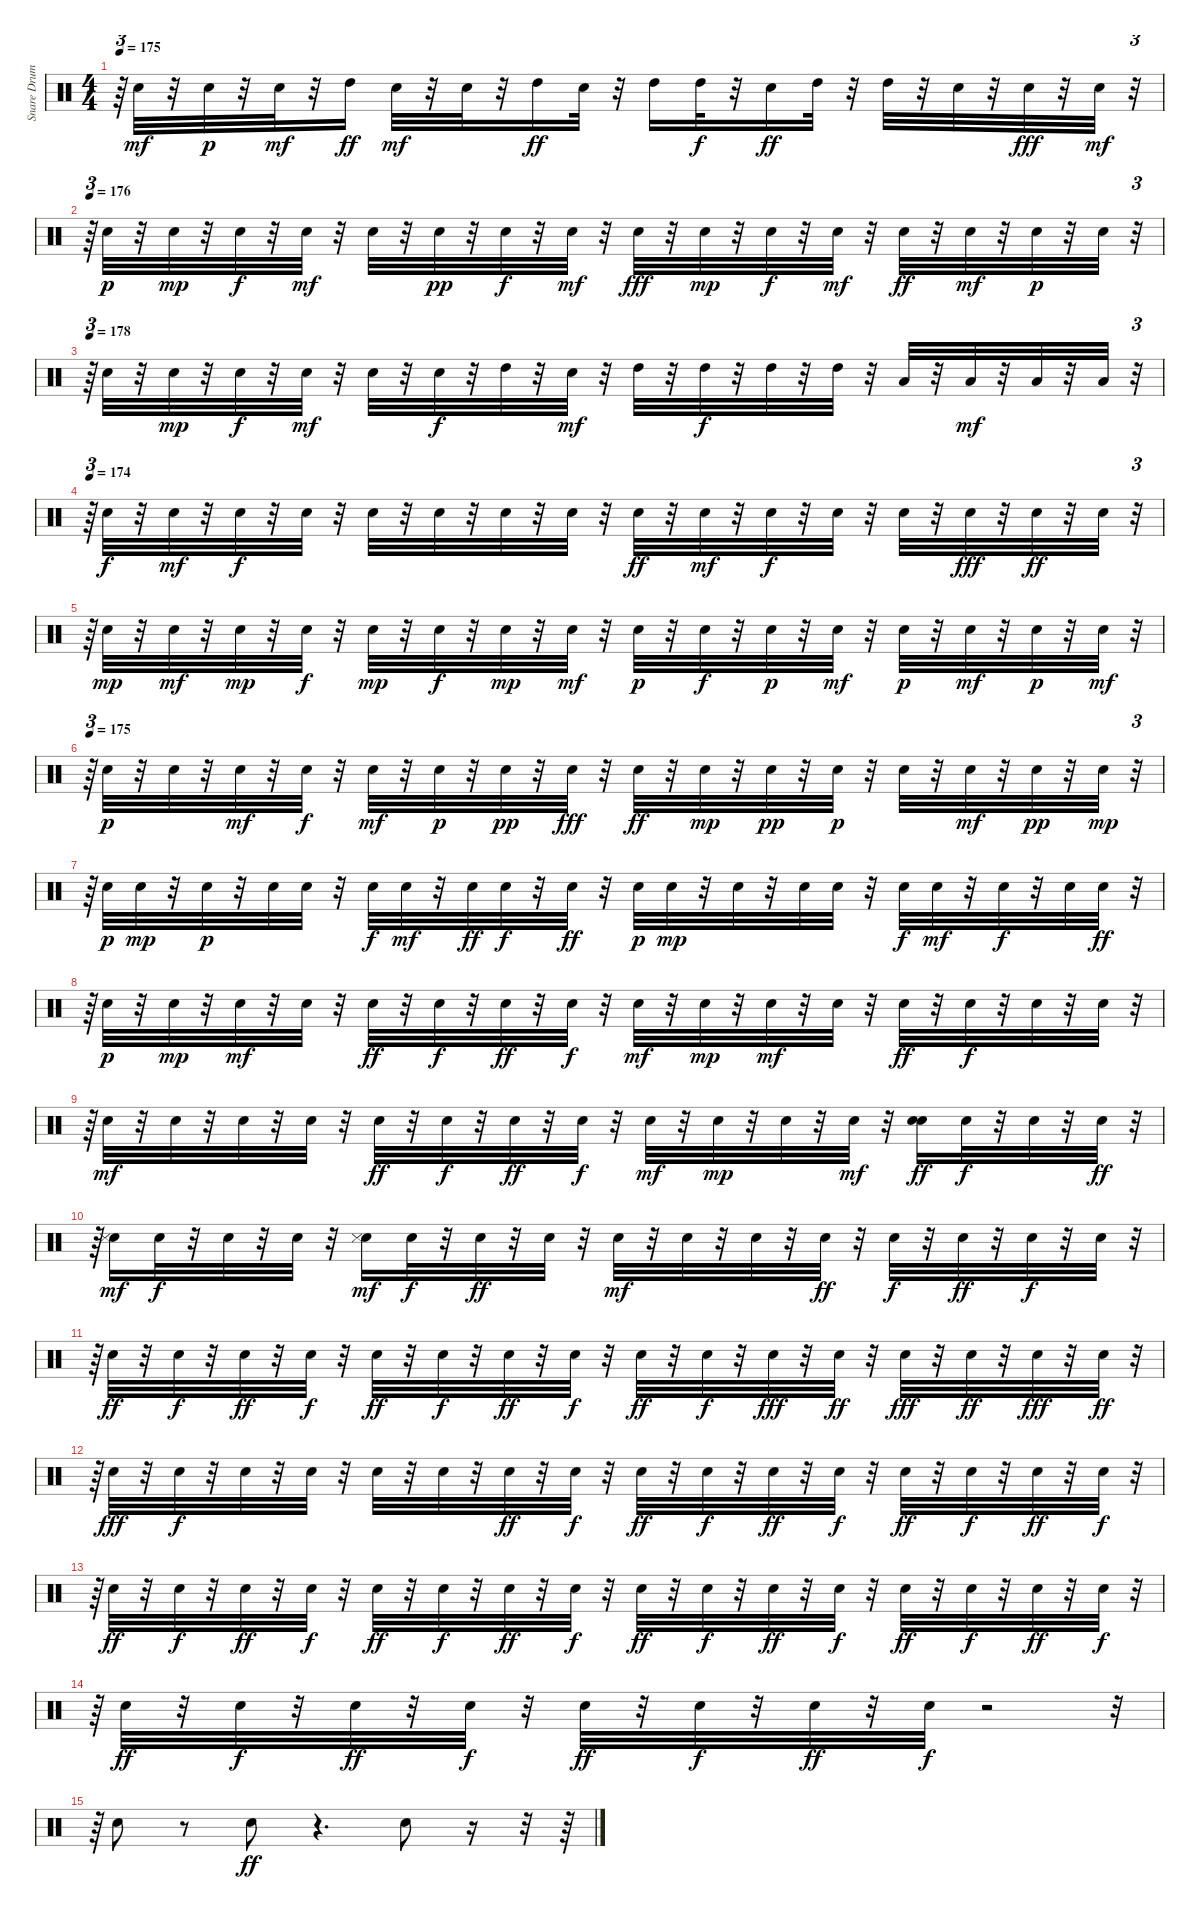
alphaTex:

\track ("Snare Drums" "Snare Drum") {instrument percussion}
\staff {score}
\articulation defaults
\ts (4 4)
\tempo 175
\clef neutral
\ks c
r.64{tu (3 2) dy mf} "Electric Snare (hit)".32 r.32 "Electric Snare (hit)".32{dy p} r.32 "Electric Snare (hit)".32{dy mf} r.32 "High Tom (hit)".16{dy ff} "Electric Snare (hit)".32{dy mf} r.32 "Electric Snare (hit)".32 r.32 "High Tom (hit)".16{dy ff} "Electric Snare (hit)".32 r.32 "High Tom (hit)".16 "High Tom (hit)".32{dy f} r.32 "Electric Snare (hit)".16{dy ff} "High Tom (hit)".32 r.32 "High Tom (hit)".32 r.32 "Electric Snare (hit)".32 r.32 "Electric Snare (hit)".32{dy fff} r.32 "Electric Snare (hit)".32{dy mf} r.32{tu (3 2)} |
\tempo 176
r.64{tu (3 2)} "Electric Snare (hit)".32{dy p} r.32 "Electric Snare (hit)".32{dy mp} r.32 "Electric Snare (hit)".32{dy f} r.32 "Electric Snare (hit)".32{dy mf} r.32 "Electric Snare (hit)".32 r.32 "Electric Snare (hit)".32{dy pp} r.32 "Electric Snare (hit)".32{dy f} r.32 "Electric Snare (hit)".32{dy mf} r.32 "Electric Snare (hit)".32{dy fff} r.32 "Electric Snare (hit)".32{dy mp} r.32 "Electric Snare (hit)".32{dy f} r.32 "Electric Snare (hit)".32{dy mf} r.32 "Electric Snare (hit)".32{dy ff} r.32 "Electric Snare (hit)".32{dy mf} r.32 "Electric Snare (hit)".32{dy p} r.32 "Electric Snare (hit)".32 r.32{tu (3 2)} |
\tempo 178
r.64{tu (3 2)} "Electric Snare (hit)".32 r.32 "Electric Snare (hit)".32{dy mp} r.32 "Electric Snare (hit)".32{dy f} r.32 "Electric Snare (hit)".32{dy mf} r.32 "Electric Snare (hit)".32 r.32 "Electric Snare (hit)".32{dy f} r.32 "High Tom (hit)".32 r.32 "Electric Snare (hit)".32{dy mf} r.32 "High Tom (hit)".32 r.32 "High Tom (hit)".32{dy f} r.32 "High Tom (hit)".32 r.32 "High Tom (hit)".32 r.32 "Low Tom (hit)".32 r.32 "Low Tom (hit)".32{dy mf} r.32 "Low Tom (hit)".32 r.32 "Low Tom (hit)".32 r.32{tu (3 2)} |
\tempo 174
r.64{tu (3 2)} "Electric Snare (hit)".32{dy f} r.32 "Electric Snare (hit)".32{dy mf} r.32 "Electric Snare (hit)".32{dy f} r.32 "Electric Snare (hit)".32 r.32 "Electric Snare (hit)".32 r.32 "Electric Snare (hit)".32 r.32 "Electric Snare (hit)".32 r.32 "Electric Snare (hit)".32 r.32 "Electric Snare (hit)".32{dy ff} r.32 "Electric Snare (hit)".32{dy mf} r.32 "Electric Snare (hit)".32{dy f} r.32 "Electric Snare (hit)".32 r.32 "Electric Snare (hit)".32 r.32 "Electric Snare (hit)".32{dy fff} r.32 "Electric Snare (hit)".32{dy ff} r.32 "Electric Snare (hit)".32 r.32{tu (3 2)} |
r.64{tu (3 2)} "Electric Snare (hit)".32{dy mp} r.32 "Electric Snare (hit)".32{dy mf} r.32 "Electric Snare (hit)".32{dy mp} r.32 "Electric Snare (hit)".32{dy f} r.32 "Electric Snare (hit)".32{dy mp} r.32 "Electric Snare (hit)".32{dy f} r.32 "Electric Snare (hit)".32{dy mp} r.32 "Electric Snare (hit)".32{dy mf} r.32 "Electric Snare (hit)".32{dy p} r.32 "Electric Snare (hit)".32{dy f} r.32 "Electric Snare (hit)".32{dy p} r.32 "Electric Snare (hit)".32{dy mf} r.32 "Electric Snare (hit)".32{dy p} r.32 "Electric Snare (hit)".32{dy mf} r.32 "Electric Snare (hit)".32{dy p} r.32 "Electric Snare (hit)".32{dy mf} r.32{tu (3 2)} |
\tempo 175
r.64{tu (3 2)} "Electric Snare (hit)".32{dy p} r.32 "Electric Snare (hit)".32 r.32 "Electric Snare (hit)".32{dy mf} r.32 "Electric Snare (hit)".32{dy f} r.32 "Electric Snare (hit)".32{dy mf} r.32 "Electric Snare (hit)".32{dy p} r.32 "Electric Snare (hit)".32{dy pp} r.32 "Electric Snare (hit)".32{dy fff} r.32 "Electric Snare (hit)".32{dy ff} r.32 "Electric Snare (hit)".32{dy mp} r.32 "Electric Snare (hit)".32{dy pp} r.32 "Electric Snare (hit)".32{dy p} r.32 "Electric Snare (hit)".32 r.32 "Electric Snare (hit)".32{dy mf} r.32 "Electric Snare (hit)".32{dy pp} r.32 "Electric Snare (hit)".32{dy mp} r.32{tu (3 2)} |
r.64{tu (3 2)} "Electric Snare (hit)".32{dy p} "Electric Snare (hit)".32{dy mp} r.32 "Electric Snare (hit)".32{dy p} r.32 "Electric Snare (hit)".32 "Electric Snare (hit)".32 r.32 "Electric Snare (hit)".32{dy f} "Electric Snare (hit)".32{dy mf} r.32 "Electric Snare (hit)".32{dy ff} "Electric Snare (hit)".32{dy f} r.32 "Electric Snare (hit)".32{dy ff} r.32 "Electric Snare (hit)".32{dy p} "Electric Snare (hit)".32{dy mp} r.32 "Electric Snare (hit)".32 r.32 "Electric Snare (hit)".32 "Electric Snare (hit)".32 r.32 "Electric Snare (hit)".32{dy f} "Electric Snare (hit)".32{dy mf} r.32 "Electric Snare (hit)".32{dy f} r.32 "Electric Snare (hit)".32 "Electric Snare (hit)".32{dy ff} r.32{tu (3 2)} |
r.64{tu (3 2)} "Electric Snare (hit)".32{dy p} r.32 "Electric Snare (hit)".32{dy mp} r.32 "Electric Snare (hit)".32{dy mf} r.32 "Electric Snare (hit)".32 r.32 "Electric Snare (hit)".32{dy ff} r.32 "Electric Snare (hit)".32{dy f} r.32 "Electric Snare (hit)".32{dy ff} r.32 "Electric Snare (hit)".32{dy f} r.32 "Electric Snare (hit)".32{dy mf} r.32 "Electric Snare (hit)".32{dy mp} r.32 "Electric Snare (hit)".32{dy mf} r.32 "Electric Snare (hit)".32 r.32 "Electric Snare (hit)".32{dy ff} r.32 "Electric Snare (hit)".32{dy f} r.32 "Electric Snare (hit)".32 r.32 "Electric Snare (hit)".32 r.32{tu (3 2)} |
r.64{tu (3 2)} "Electric Snare (hit)".32{dy mf} r.32 "Electric Snare (hit)".32 r.32 "Electric Snare (hit)".32 r.32 "Electric Snare (hit)".32 r.32 "Electric Snare (hit)".32{dy ff} r.32 "Electric Snare (hit)".32{dy f} r.32 "Electric Snare (hit)".32{dy ff} r.32 "Electric Snare (hit)".32{dy f} r.32 "Electric Snare (hit)".32{dy mf} r.32 "Electric Snare (hit)".32{dy mp} r.32 "Electric Snare (hit)".32 r.32 "Electric Snare (hit)".32{dy mf} r.32 ("Electric Snare (hit)" "Snare (hit) 2").16{dy ff} "Electric Snare (hit)".32{dy f} r.32 "Electric Snare (hit)".32 r.32 "Electric Snare (hit)".32{dy ff} r.32{tu (3 2)} |
r.64{tu (3 2)} ("Electric Snare (hit)" "Snare (side stick) 3").16{dy mf} "Electric Snare (hit)".32{dy f} r.32 "Electric Snare (hit)".32 r.32 "Electric Snare (hit)".32 r.32 ("Electric Snare (hit)" "Snare (side stick) 3").16{dy mf} "Electric Snare (hit)".32{dy f} r.32 "Electric Snare (hit)".32{dy ff} r.32 "Electric Snare (hit)".32 r.32 "Electric Snare (hit)".32{dy mf} r.32 "Electric Snare (hit)".32 r.32 "Electric Snare (hit)".32 r.32 "Electric Snare (hit)".32{dy ff} r.32 "Electric Snare (hit)".32{dy f} r.32 "Electric Snare (hit)".32{dy ff} r.32 "Electric Snare (hit)".32{dy f} r.32 "Electric Snare (hit)".32 r.32{tu (3 2)} |
r.64{tu (3 2)} "Electric Snare (hit)".32{dy ff} r.32 "Electric Snare (hit)".32{dy f} r.32 "Electric Snare (hit)".32{dy ff} r.32 "Electric Snare (hit)".32{dy f} r.32 "Electric Snare (hit)".32{dy ff} r.32 "Electric Snare (hit)".32{dy f} r.32 "Electric Snare (hit)".32{dy ff} r.32 "Electric Snare (hit)".32{dy f} r.32 "Electric Snare (hit)".32{dy ff} r.32 "Electric Snare (hit)".32{dy f} r.32 "Electric Snare (hit)".32{dy fff} r.32 "Electric Snare (hit)".32{dy ff} r.32 "Electric Snare (hit)".32{dy fff} r.32 "Electric Snare (hit)".32{dy ff} r.32 "Electric Snare (hit)".32{dy fff} r.32 "Electric Snare (hit)".32{dy ff} r.32{tu (3 2)} |
r.64{tu (3 2)} "Electric Snare (hit)".32{dy fff} r.32 "Electric Snare (hit)".32{dy f} r.32 "Electric Snare (hit)".32 r.32 "Electric Snare (hit)".32 r.32 "Electric Snare (hit)".32 r.32 "Electric Snare (hit)".32 r.32 "Electric Snare (hit)".32{dy ff} r.32 "Electric Snare (hit)".32{dy f} r.32 "Electric Snare (hit)".32{dy ff} r.32 "Electric Snare (hit)".32{dy f} r.32 "Electric Snare (hit)".32{dy ff} r.32 "Electric Snare (hit)".32{dy f} r.32 "Electric Snare (hit)".32{dy ff} r.32 "Electric Snare (hit)".32{dy f} r.32 "Electric Snare (hit)".32{dy ff} r.32 "Electric Snare (hit)".32{dy f} r.32{tu (3 2)} |
r.64{tu (3 2)} "Electric Snare (hit)".32{dy ff} r.32 "Electric Snare (hit)".32{dy f} r.32 "Electric Snare (hit)".32{dy ff} r.32 "Electric Snare (hit)".32{dy f} r.32 "Electric Snare (hit)".32{dy ff} r.32 "Electric Snare (hit)".32{dy f} r.32 "Electric Snare (hit)".32{dy ff} r.32 "Electric Snare (hit)".32{dy f} r.32 "Electric Snare (hit)".32{dy ff} r.32 "Electric Snare (hit)".32{dy f} r.32 "Electric Snare (hit)".32{dy ff} r.32 "Electric Snare (hit)".32{dy f} r.32 "Electric Snare (hit)".32{dy ff} r.32 "Electric Snare (hit)".32{dy f} r.32 "Electric Snare (hit)".32{dy ff} r.32 "Electric Snare (hit)".32{dy f} r.32{tu (3 2)} |
r.64{tu (3 2)} "Electric Snare (hit)".32{dy ff} r.32 "Electric Snare (hit)".32{dy f} r.32 "Electric Snare (hit)".32{dy ff} r.32 "Electric Snare (hit)".32{dy f} r.32 "Electric Snare (hit)".32{dy ff} r.32 "Electric Snare (hit)".32{dy f} r.32 "Electric Snare (hit)".32{dy ff} r.32 "Electric Snare (hit)".32{dy f} r.2 r.32{tu (3 2)} |
r.64{tu (3 2)} "Electric Snare (hit)".8 r.8 "Electric Snare (hit)".8{dy ff} r.4{d} "Electric Snare (hit)".8 r.16 r.32 r.64
